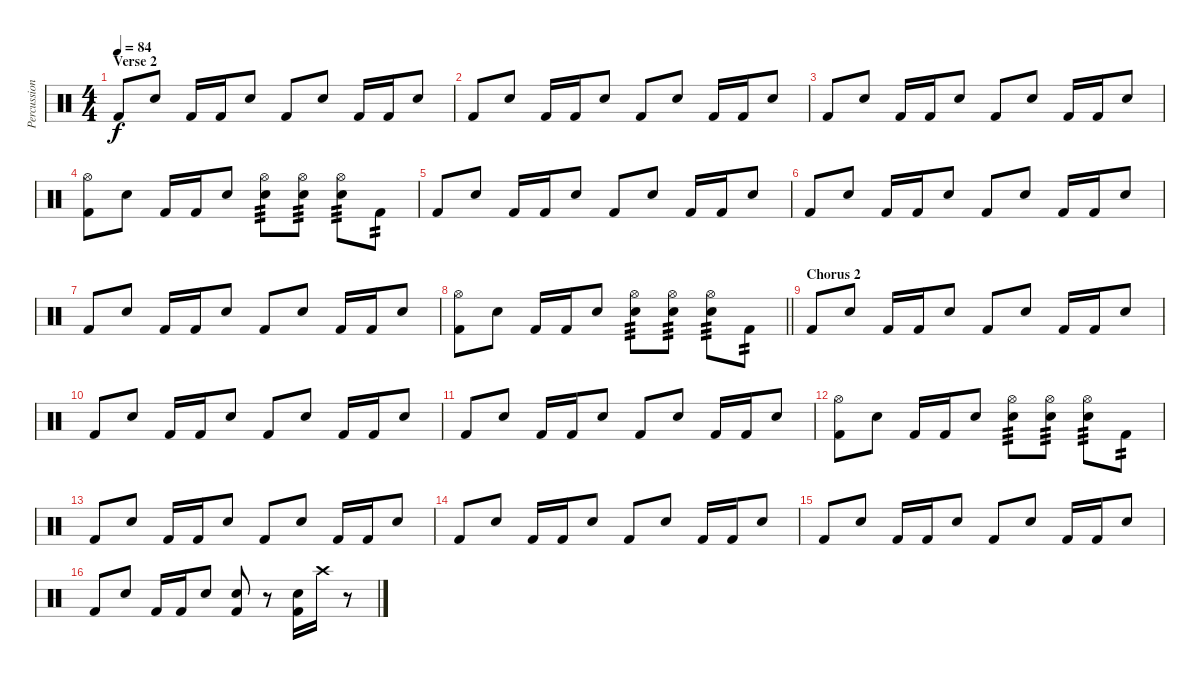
\track ("Percussion" "Percussion") {instrument percussion}
\staff {score}
\articulation defaults
\ts (4 4)
\section ("" "Verse 2")
\tempo 84
\clef neutral
\ks c "Kick (hit) 2".8{dy f} "Snare (hit) 2".8 "Kick (hit) 2".16 "Kick (hit) 2".16 "Snare (hit) 2".8 "Kick (hit) 2".8 "Snare (hit) 2".8 "Kick (hit) 2".16 "Kick (hit) 2".16 "Snare (hit) 2".8
|
"Kick (hit) 2".8 "Snare (hit) 2".8 "Kick (hit) 2".16 "Kick (hit) 2".16 "Snare (hit) 2".8 "Kick (hit) 2".8 "Snare (hit) 2".8 "Kick (hit) 2".16 "Kick (hit) 2".16 "Snare (hit) 2".8 |
"Kick (hit) 2".8 "Snare (hit) 2".8 "Kick (hit) 2".16 "Kick (hit) 2".16 "Snare (hit) 2".8 "Kick (hit) 2".8 "Snare (hit) 2".8 "Kick (hit) 2".16 "Kick (hit) 2".16 "Snare (hit) 2".8 |
("Hi-Hat (open)" "Kick (hit) 2").8 "Snare (hit) 2".8 "Kick (hit) 2".16 "Kick (hit) 2".16 "Snare (hit) 2".8 ("Hi-Hat (open)" "Snare (hit) 2").8{tp 3} ("Hi-Hat (open)" "Snare (hit) 2").8{tp 3} ("Hi-Hat (open)" "Snare (hit) 2").8{tp 3} "Kick (hit) 2".8{tp 2} |
"Kick (hit) 2".8 "Snare (hit) 2".8 "Kick (hit) 2".16 "Kick (hit) 2".16 "Snare (hit) 2".8 "Kick (hit) 2".8 "Snare (hit) 2".8 "Kick (hit) 2".16 "Kick (hit) 2".16 "Snare (hit) 2".8 |
"Kick (hit) 2".8 "Snare (hit) 2".8 "Kick (hit) 2".16 "Kick (hit) 2".16 "Snare (hit) 2".8 "Kick (hit) 2".8 "Snare (hit) 2".8 "Kick (hit) 2".16 "Kick (hit) 2".16 "Snare (hit) 2".8 |
"Kick (hit) 2".8 "Snare (hit) 2".8 "Kick (hit) 2".16 "Kick (hit) 2".16 "Snare (hit) 2".8 "Kick (hit) 2".8 "Snare (hit) 2".8 "Kick (hit) 2".16 "Kick (hit) 2".16 "Snare (hit) 2".8 |
\barLineRight lightlight
("Hi-Hat (open)" "Kick (hit) 2").8 "Snare (hit) 2".8 "Kick (hit) 2".16 "Kick (hit) 2".16 "Snare (hit) 2".8 ("Hi-Hat (open)" "Snare (hit) 2").8{tp 3} ("Hi-Hat (open)" "Snare (hit) 2").8{tp 3} ("Hi-Hat (open)" "Snare (hit) 2").8{tp 3} "Kick (hit) 2".8{tp 2} |
\section ("" "Chorus 2")
"Kick (hit) 2".8 "Snare (hit) 2".8 "Kick (hit) 2".16 "Kick (hit) 2".16 "Snare (hit) 2".8 "Kick (hit) 2".8 "Snare (hit) 2".8 "Kick (hit) 2".16 "Kick (hit) 2".16 "Snare (hit) 2".8 |
"Kick (hit) 2".8 "Snare (hit) 2".8 "Kick (hit) 2".16 "Kick (hit) 2".16 "Snare (hit) 2".8 "Kick (hit) 2".8 "Snare (hit) 2".8 "Kick (hit) 2".16 "Kick (hit) 2".16 "Snare (hit) 2".8 |
"Kick (hit) 2".8 "Snare (hit) 2".8 "Kick (hit) 2".16 "Kick (hit) 2".16 "Snare (hit) 2".8 "Kick (hit) 2".8 "Snare (hit) 2".8 "Kick (hit) 2".16 "Kick (hit) 2".16 "Snare (hit) 2".8 |
("Hi-Hat (open)" "Kick (hit) 2").8 "Snare (hit) 2".8 "Kick (hit) 2".16 "Kick (hit) 2".16 "Snare (hit) 2".8 ("Hi-Hat (open)" "Snare (hit) 2").8{tp 3} ("Hi-Hat (open)" "Snare (hit) 2").8{tp 3} ("Hi-Hat (open)" "Snare (hit) 2").8{tp 3} "Kick (hit) 2".8{tp 2} |
"Kick (hit) 2".8 "Snare (hit) 2".8 "Kick (hit) 2".16 "Kick (hit) 2".16 "Snare (hit) 2".8 "Kick (hit) 2".8 "Snare (hit) 2".8 "Kick (hit) 2".16 "Kick (hit) 2".16 "Snare (hit) 2".8 |
"Kick (hit) 2".8 "Snare (hit) 2".8 "Kick (hit) 2".16 "Kick (hit) 2".16 "Snare (hit) 2".8 "Kick (hit) 2".8 "Snare (hit) 2".8 "Kick (hit) 2".16 "Kick (hit) 2".16 "Snare (hit) 2".8 |
"Kick (hit) 2".8 "Snare (hit) 2".8 "Kick (hit) 2".16 "Kick (hit) 2".16 "Snare (hit) 2".8 "Kick (hit) 2".8 "Snare (hit) 2".8 "Kick (hit) 2".16 "Kick (hit) 2".16 "Snare (hit) 2".8 |
"Kick (hit) 2".8 "Snare (hit) 2".8 "Kick (hit) 2".16 "Kick (hit) 2".16 "Snare (hit) 2".8 ("Snare (hit) 2" "Kick (hit) 2").8 r.8 ("Snare (hit) 2" "Kick (hit) 2").16 "Crash high (hit)".16 r.8
